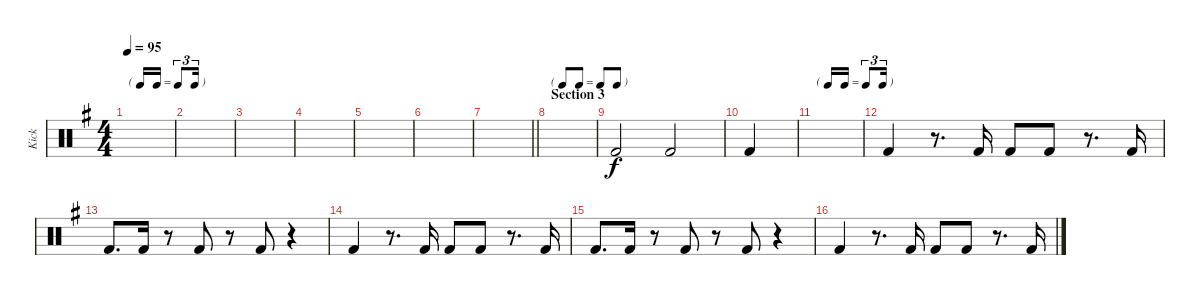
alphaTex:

\track ("Kick" "Kick") {instrument percussion}
\staff {score}
\articulation defaults
\ts (4 4)
\tf triplet16th
\tempo 95
\clef neutral
\ks eminor
|
|
|
|
|
|
\barLineRight lightlight
|
\tf none
\section ("" "Section 3")
|
"Kick (hit) 2".2 "Kick (hit) 2".2 |
"Kick (hit) 2".4 |
\tf triplet16th
|
"Kick (hit) 2".4 r.8{d} "Kick (hit) 2".16 "Kick (hit) 2".8 "Kick (hit) 2".8 r.8{d} "Kick (hit) 2".16 |
"Kick (hit) 2".8{d} "Kick (hit) 2".16 r.8 "Kick (hit) 2".8 r.8 "Kick (hit) 2".8 r.4 |
"Kick (hit) 2".4 r.8{d} "Kick (hit) 2".16 "Kick (hit) 2".8 "Kick (hit) 2".8 r.8{d} "Kick (hit) 2".16 |
"Kick (hit) 2".8{d} "Kick (hit) 2".16 r.8 "Kick (hit) 2".8 r.8 "Kick (hit) 2".8 r.4 |
"Kick (hit) 2".4 r.8{d} "Kick (hit) 2".16 "Kick (hit) 2".8 "Kick (hit) 2".8 r.8{d} "Kick (hit) 2".16
